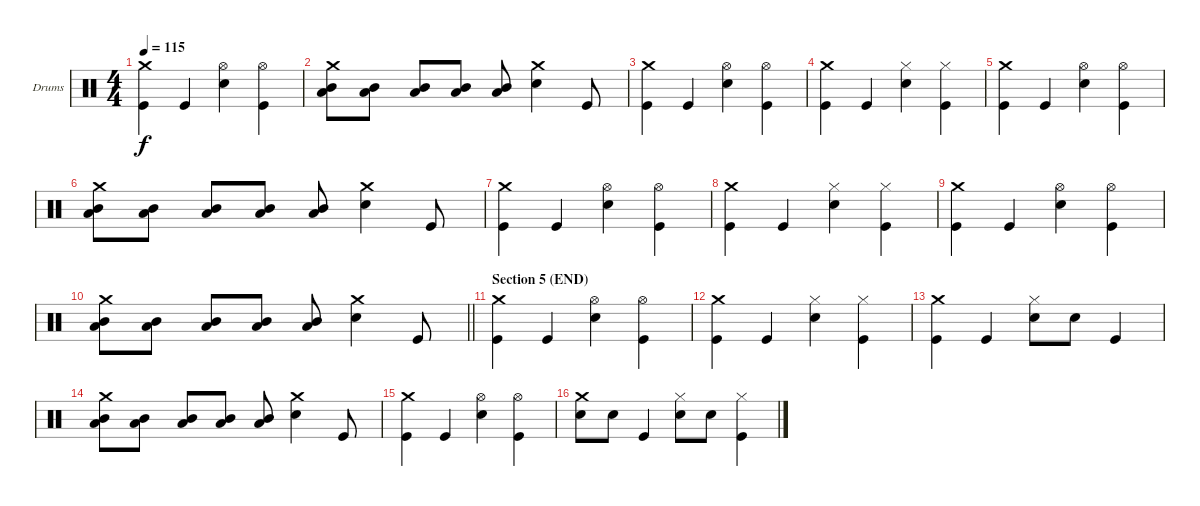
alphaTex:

\bracketExtendMode groupsimilarinstruments
\firstSystemTrackNameOrientation horizontal
\otherSystemsTrackNameOrientation horizontal
\track ("Drumkit" "Drums") {instrument percussion}
\staff {score}
\articulation defaults
\ts (4 4)
\tempo 115
\clef neutral
\ks aminor
("Crash medium (hit)" "Kick (hit)").4{dy f} "Kick (hit)".4 ("Hi-Hat (open)" "Snare (hit) 2").4 ("Hi-Hat (open)" "Kick (hit)").4 |
("Crash medium (hit)" "Low Tom (hit)" "Mid Tom (hit)").8 ("Low Tom (hit)" "Mid Tom (hit)").8 ("Low Tom (hit)" "Mid Tom (hit)").8 ("Low Tom (hit)" "Mid Tom (hit)").8 ("Low Tom (hit)" "Mid Tom (hit)").8 ("Crash medium (hit)" "Snare (hit) 2").4 "Kick (hit)".8 |
("Crash medium (hit)" "Kick (hit)").4 "Kick (hit)".4 ("Hi-Hat (open)" "Snare (hit) 2").4 ("Hi-Hat (open)" "Kick (hit)").4 |
("Crash medium (hit)" "Kick (hit)").4 "Kick (hit)".4 ("Hi-Hat (closed)" "Snare (hit) 2").4 ("Hi-Hat (closed)" "Kick (hit)").4 |
("Crash medium (hit)" "Kick (hit)").4 "Kick (hit)".4 ("Hi-Hat (open)" "Snare (hit) 2").4 ("Hi-Hat (open)" "Kick (hit)").4 |
("Crash medium (hit)" "Low Tom (hit)" "Mid Tom (hit)").8 ("Low Tom (hit)" "Mid Tom (hit)").8 ("Low Tom (hit)" "Mid Tom (hit)").8 ("Low Tom (hit)" "Mid Tom (hit)").8 ("Low Tom (hit)" "Mid Tom (hit)").8 ("Crash medium (hit)" "Snare (hit) 2").4 "Kick (hit)".8 |
("Crash medium (hit)" "Kick (hit)").4 "Kick (hit)".4 ("Hi-Hat (open)" "Snare (hit) 2").4 ("Hi-Hat (open)" "Kick (hit)").4 |
("Crash medium (hit)" "Kick (hit)").4 "Kick (hit)".4 ("Hi-Hat (closed)" "Snare (hit) 2").4 ("Hi-Hat (closed)" "Kick (hit)").4 |
("Crash medium (hit)" "Kick (hit)").4 "Kick (hit)".4 ("Hi-Hat (open)" "Snare (hit) 2").4 ("Hi-Hat (open)" "Kick (hit)").4 |
\barLineRight lightlight
("Crash medium (hit)" "Low Tom (hit)" "Mid Tom (hit)").8 ("Low Tom (hit)" "Mid Tom (hit)").8 ("Low Tom (hit)" "Mid Tom (hit)").8 ("Low Tom (hit)" "Mid Tom (hit)").8 ("Low Tom (hit)" "Mid Tom (hit)").8 ("Crash medium (hit)" "Snare (hit) 2").4 "Kick (hit)".8 |
\section ("" "Section 5 (END)")
("Crash medium (hit)" "Kick (hit)").4 "Kick (hit)".4 ("Hi-Hat (open)" "Snare (hit) 2").4 ("Hi-Hat (open)" "Kick (hit)").4 |
("Crash medium (hit)" "Kick (hit)").4 "Kick (hit)".4 ("Hi-Hat (closed)" "Snare (hit) 2").4 ("Hi-Hat (closed)" "Kick (hit)").4 |
("Crash medium (hit)" "Kick (hit)").4 "Kick (hit)".4 ("Hi-Hat (closed)" "Snare (hit) 2").8 "Snare (hit) 2".8 "Kick (hit)".4 |
("Crash medium (hit)" "Low Tom (hit)" "Mid Tom (hit)").8 ("Low Tom (hit)" "Mid Tom (hit)").8 ("Low Tom (hit)" "Mid Tom (hit)").8 ("Low Tom (hit)" "Mid Tom (hit)").8 ("Low Tom (hit)" "Mid Tom (hit)").8 ("Crash medium (hit)" "Snare (hit) 2").4 "Kick (hit)".8 |
("Crash medium (hit)" "Kick (hit)").4 "Kick (hit)".4 ("Hi-Hat (open)" "Snare (hit) 2").4 ("Hi-Hat (open)" "Kick (hit)").4 |
("Crash medium (hit)" "Snare (hit) 2").8 "Snare (hit) 2".8 "Kick (hit)".4 ("Hi-Hat (closed)" "Snare (hit) 2").8 "Snare (hit) 2".8 ("Hi-Hat (closed)" "Kick (hit)").4
